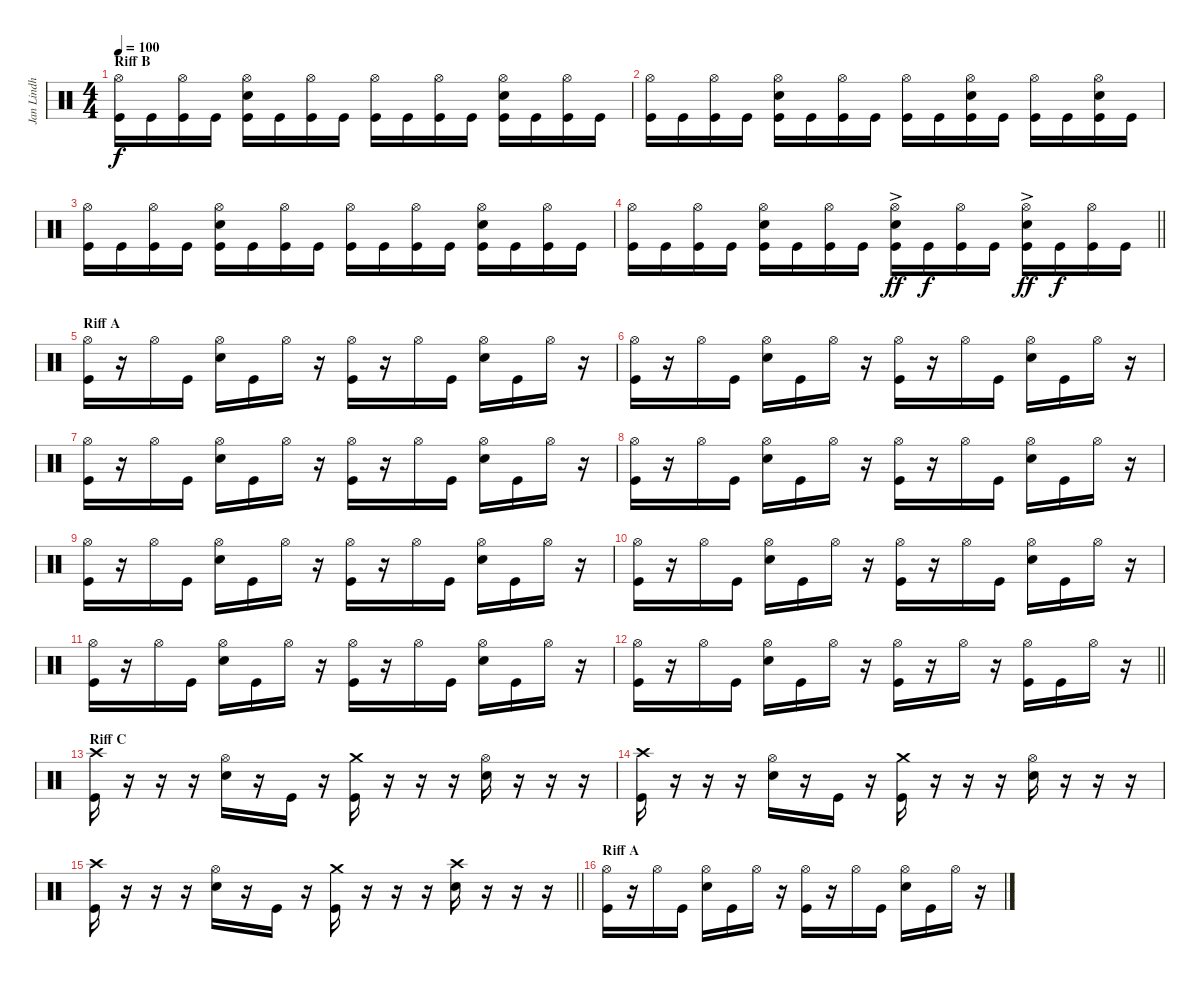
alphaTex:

\track ("Jan Lindh" "Jan Lindh") {instrument percussion}
\staff {score}
\articulation defaults
\ts (4 4)
\section ("" "Riff B")
\tempo 100
\clef neutral
\ks c
("Hi-Hat (open)" "Kick (hit)").16{dy f} "Kick (hit)".16 ("Hi-Hat (open)" "Kick (hit)").16 "Kick (hit)".16 ("Hi-Hat (open)" "Snare (hit) 2" "Kick (hit)").16 "Kick (hit)".16 ("Hi-Hat (open)" "Kick (hit)").16 "Kick (hit)".16 ("Hi-Hat (open)" "Kick (hit)").16 "Kick (hit)".16 ("Hi-Hat (open)" "Kick (hit)").16 "Kick (hit)".16 ("Hi-Hat (open)" "Snare (hit) 2" "Kick (hit)").16 "Kick (hit)".16 ("Hi-Hat (open)" "Kick (hit)").16 "Kick (hit)".16 |
("Hi-Hat (open)" "Kick (hit)").16 "Kick (hit)".16 ("Hi-Hat (open)" "Kick (hit)").16 "Kick (hit)".16 ("Hi-Hat (open)" "Snare (hit) 2" "Kick (hit)").16 "Kick (hit)".16 ("Hi-Hat (open)" "Kick (hit)").16 "Kick (hit)".16 ("Hi-Hat (open)" "Kick (hit)").16 "Kick (hit)".16 ("Hi-Hat (open)" "Snare (hit) 2" "Kick (hit)").16 "Kick (hit)".16 ("Hi-Hat (open)" "Kick (hit)").16 "Kick (hit)".16 ("Hi-Hat (open)" "Snare (hit) 2" "Kick (hit)").16 "Kick (hit)".16 |
("Hi-Hat (open)" "Kick (hit)").16 "Kick (hit)".16 ("Hi-Hat (open)" "Kick (hit)").16 "Kick (hit)".16 ("Hi-Hat (open)" "Snare (hit) 2" "Kick (hit)").16 "Kick (hit)".16 ("Hi-Hat (open)" "Kick (hit)").16 "Kick (hit)".16 ("Hi-Hat (open)" "Kick (hit)").16 "Kick (hit)".16 ("Hi-Hat (open)" "Kick (hit)").16 "Kick (hit)".16 ("Hi-Hat (open)" "Snare (hit) 2" "Kick (hit)").16 "Kick (hit)".16 ("Hi-Hat (open)" "Kick (hit)").16 "Kick (hit)".16 |
\barLineRight lightlight
("Hi-Hat (open)" "Kick (hit)").16 "Kick (hit)".16 ("Hi-Hat (open)" "Kick (hit)").16 "Kick (hit)".16 ("Hi-Hat (open)" "Snare (hit) 2" "Kick (hit)").16 "Kick (hit)".16 ("Hi-Hat (open)" "Kick (hit)").16 "Kick (hit)".16 ("Hi-Hat (open)" "Snare (hit) 2"{ac} "Kick (hit)").16{dy ff} "Kick (hit)".16{dy f} ("Hi-Hat (open)" "Kick (hit)").16 "Kick (hit)".16 ("Hi-Hat (open)" "Snare (hit) 2"{ac} "Kick (hit)").16{dy ff} "Kick (hit)".16{dy f} ("Hi-Hat (open)" "Kick (hit)").16 "Kick (hit)".16 |
\section ("" "Riff A")
("Hi-Hat (open)" "Kick (hit)").16 r.16 "Hi-Hat (open)".16 "Kick (hit)".16 ("Hi-Hat (open)" "Snare (hit) 2").16 "Kick (hit)".16 "Hi-Hat (open)".16 r.16 ("Hi-Hat (open)" "Kick (hit)").16 r.16 "Hi-Hat (open)".16 "Kick (hit)".16 ("Hi-Hat (open)" "Snare (hit) 2").16 "Kick (hit)".16 "Hi-Hat (open)".16 r.16 |
("Hi-Hat (open)" "Kick (hit)").16 r.16 "Hi-Hat (open)".16 "Kick (hit)".16 ("Hi-Hat (open)" "Snare (hit) 2").16 "Kick (hit)".16 "Hi-Hat (open)".16 r.16 ("Hi-Hat (open)" "Kick (hit)").16 r.16 "Hi-Hat (open)".16 "Kick (hit)".16 ("Hi-Hat (open)" "Snare (hit) 2").16 "Kick (hit)".16 "Hi-Hat (open)".16 r.16 |
("Hi-Hat (open)" "Kick (hit)").16 r.16 "Hi-Hat (open)".16 "Kick (hit)".16 ("Hi-Hat (open)" "Snare (hit) 2").16 "Kick (hit)".16 "Hi-Hat (open)".16 r.16 ("Hi-Hat (open)" "Kick (hit)").16 r.16 "Hi-Hat (open)".16 "Kick (hit)".16 ("Hi-Hat (open)" "Snare (hit) 2").16 "Kick (hit)".16 "Hi-Hat (open)".16 r.16 |
("Hi-Hat (open)" "Kick (hit)").16 r.16 "Hi-Hat (open)".16 "Kick (hit)".16 ("Hi-Hat (open)" "Snare (hit) 2").16 "Kick (hit)".16 "Hi-Hat (open)".16 r.16 ("Hi-Hat (open)" "Kick (hit)").16 r.16 "Hi-Hat (open)".16 "Kick (hit)".16 ("Hi-Hat (open)" "Snare (hit) 2").16 "Kick (hit)".16 "Hi-Hat (open)".16 r.16 |
("Hi-Hat (open)" "Kick (hit)").16 r.16 "Hi-Hat (open)".16 "Kick (hit)".16 ("Hi-Hat (open)" "Snare (hit) 2").16 "Kick (hit)".16 "Hi-Hat (open)".16 r.16 ("Hi-Hat (open)" "Kick (hit)").16 r.16 "Hi-Hat (open)".16 "Kick (hit)".16 ("Hi-Hat (open)" "Snare (hit) 2").16 "Kick (hit)".16 "Hi-Hat (open)".16 r.16 |
("Hi-Hat (open)" "Kick (hit)").16 r.16 "Hi-Hat (open)".16 "Kick (hit)".16 ("Hi-Hat (open)" "Snare (hit) 2").16 "Kick (hit)".16 "Hi-Hat (open)".16 r.16 ("Hi-Hat (open)" "Kick (hit)").16 r.16 "Hi-Hat (open)".16 "Kick (hit)".16 ("Hi-Hat (open)" "Snare (hit) 2").16 "Kick (hit)".16 "Hi-Hat (open)".16 r.16 |
("Hi-Hat (open)" "Kick (hit)").16 r.16 "Hi-Hat (open)".16 "Kick (hit)".16 ("Hi-Hat (open)" "Snare (hit) 2").16 "Kick (hit)".16 "Hi-Hat (open)".16 r.16 ("Hi-Hat (open)" "Kick (hit)").16 r.16 "Hi-Hat (open)".16 "Kick (hit)".16 ("Hi-Hat (open)" "Snare (hit) 2").16 "Kick (hit)".16 "Hi-Hat (open)".16 r.16 |
\barLineRight lightlight
("Hi-Hat (open)" "Kick (hit)").16 r.16 "Hi-Hat (open)".16 "Kick (hit)".16 ("Hi-Hat (open)" "Snare (hit) 2").16 "Kick (hit)".16 "Hi-Hat (open)".16 r.16 ("Hi-Hat (open)" "Kick (hit)").16 r.16 "Hi-Hat (open)".16 r.16 ("Hi-Hat (open)" "Kick (hit)").16 "Kick (hit)".16 "Hi-Hat (open)".16 r.16 |
\section ("" "Riff C")
("Crash high (hit)" "Kick (hit)").16 r.16 r.16 r.16 ("Hi-Hat (open)" "Snare (hit) 2").16 r.16 "Kick (hit)".16 r.16 ("Crash medium (hit)" "Kick (hit)").16 r.16 r.16 r.16 ("Hi-Hat (open)" "Snare (hit) 2").16 r.16 r.16 r.16 |
("Crash high (hit)" "Kick (hit)").16 r.16 r.16 r.16 ("Hi-Hat (open)" "Snare (hit) 2").16 r.16 "Kick (hit)".16 r.16 ("Crash medium (hit)" "Kick (hit)").16 r.16 r.16 r.16 ("Hi-Hat (open)" "Snare (hit) 2").16 r.16 r.16 r.16 |
\barLineRight lightlight
("Crash high (hit)" "Kick (hit)").16 r.16 r.16 r.16 ("Hi-Hat (open)" "Snare (hit) 2").16 r.16 "Kick (hit)".16 r.16 ("Crash medium (hit)" "Kick (hit)").16 r.16 r.16 r.16 ("Crash high (hit)" "Snare (hit) 2").16 r.16 r.16 r.16 |
\section ("" "Riff A")
("Hi-Hat (open)" "Kick (hit)").16 r.16 "Hi-Hat (open)".16 "Kick (hit)".16 ("Hi-Hat (open)" "Snare (hit) 2").16 "Kick (hit)".16 "Hi-Hat (open)".16 r.16 ("Hi-Hat (open)" "Kick (hit)").16 r.16 "Hi-Hat (open)".16 "Kick (hit)".16 ("Hi-Hat (open)" "Snare (hit) 2").16 "Kick (hit)".16 "Hi-Hat (open)".16 r.16
